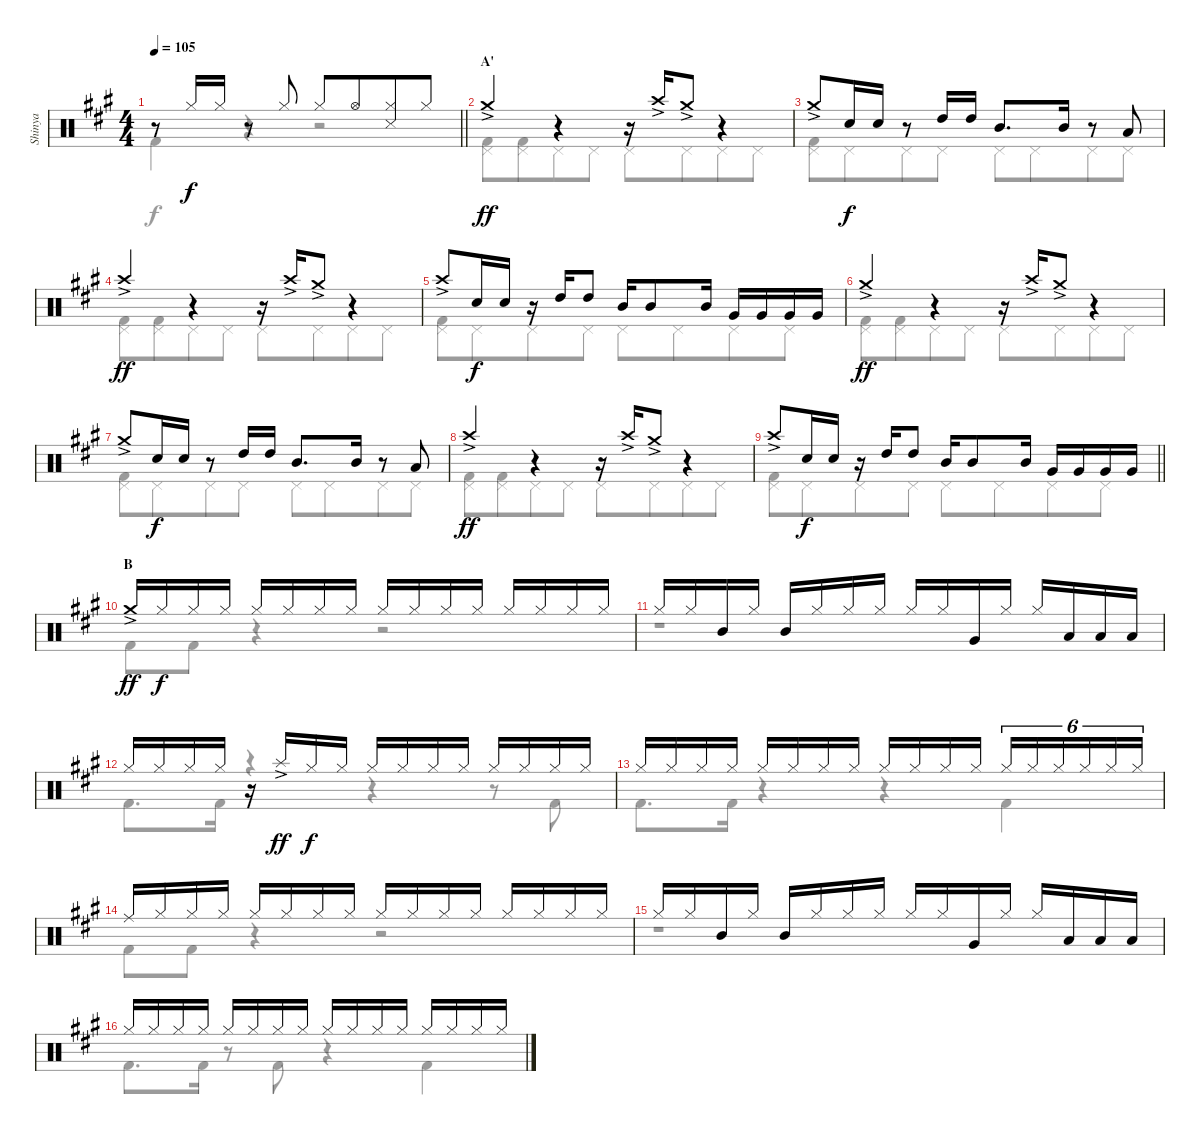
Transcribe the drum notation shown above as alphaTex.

\track ("Shinya" "Shinya") {instrument percussion}
\staff {score}
\articulation defaults
\voice
\ts (4 4)
\tempo 105
\clef neutral
\barLineRight lightlight
\ks f#minor
r.8{dy f} "Hi-Hat (closed)".16 "Hi-Hat (closed)".16 r.8 "Hi-Hat (closed)".8 "Hi-Hat (closed)".8 "Hi-Hat (open)".8{beam merge} ("Hi-Hat (closed)" "Snare (side stick) 3").8 "Hi-Hat (closed)".8 |
\section ("" "A'")
"Crash medium (hit)"{ac}.4{dy ff} r.4 r.16 "Crash high (hit)"{ac}.16 "Crash medium (hit)"{ac}.8 r.4 |
"Crash medium (hit)"{ac}.8 "Snare (hit) 2".16{dy f} "Snare (hit) 2".16 r.8 "High Tom (hit)".16 "High Tom (hit)".16 "Mid Tom (hit)".8{d} "Mid Tom (hit)".16 r.8 "Low Floor Tom (hit)".8 |
"Crash high (hit)"{ac}.4{dy ff} r.4 r.16 "Crash high (hit)"{ac}.16 "Crash medium (hit)"{ac}.8 r.4 |
"Crash high (hit)"{ac}.8 "Snare (hit) 2".16{dy f} "Snare (hit) 2".16 r.16 "High Tom (hit)".16 "High Tom (hit)".8 "Mid Tom (hit)".16 "Mid Tom (hit)".8 "Mid Tom (hit)".16 "Very Low Tom (hit)".16 "Very Low Tom (hit)".16 "Very Low Tom (hit)".16 "Very Low Tom (hit)".16 |
"Crash medium (hit)"{ac}.4{dy ff} r.4 r.16 "Crash high (hit)"{ac}.16 "Crash medium (hit)"{ac}.8 r.4 |
"Crash medium (hit)"{ac}.8 "Snare (hit) 2".16{dy f} "Snare (hit) 2".16 r.8 "High Tom (hit)".16 "High Tom (hit)".16 "Mid Tom (hit)".8{d} "Mid Tom (hit)".16 r.8 "Low Floor Tom (hit)".8 |
"Crash high (hit)"{ac}.4{dy ff} r.4 r.16 "Crash high (hit)"{ac}.16 "Crash medium (hit)"{ac}.8 r.4 |
\barLineRight lightlight "Crash high (hit)"{ac}.8 "Snare (hit) 2".16{dy f} "Snare (hit) 2".16
r.16 "High Tom (hit)".16 "High Tom (hit)".8 "Mid Tom (hit)".16 "Mid Tom (hit)".8 "Mid Tom (hit)".16 "Very Low Tom (hit)".16 "Very Low Tom (hit)".16 "Very Low Tom (hit)".16 "Very Low Tom (hit)".16 |
\section ("" "B")
"Crash medium (hit)"{ac}.16{dy ff} "Hi-Hat (closed)".16{dy f} "Hi-Hat (closed)".16 "Hi-Hat (closed)".16 "Hi-Hat (closed)".16 "Hi-Hat (closed)".16 "Hi-Hat (closed)".16 "Hi-Hat (closed)".16 "Hi-Hat (closed)".16 "Hi-Hat (closed)".16 "Hi-Hat (closed)".16 "Hi-Hat (closed)".16 "Hi-Hat (closed)".16 "Hi-Hat (closed)".16 "Hi-Hat (closed)".16 "Hi-Hat (closed)".16 |
"Hi-Hat (closed)".16 "Hi-Hat (closed)".16 "Mid Tom (hit)".16 "Hi-Hat (closed)".16 "Mid Tom (hit)".16 "Hi-Hat (closed)".16 "Hi-Hat (closed)".16 "Hi-Hat (closed)".16 "Hi-Hat (closed)".16 "Hi-Hat (closed)".16 "Very Low Tom (hit)".16 "Hi-Hat (closed)".16 "Hi-Hat (closed)".16 "Low Floor Tom (hit)".16 "Low Floor Tom (hit)".16 "Low Floor Tom (hit)".16 |
"Hi-Hat (closed)".16 "Hi-Hat (closed)".16 "Hi-Hat (closed)".16 "Hi-Hat (closed)".16 r.16 "Splash (hit)"{ac}.16{dy ff} "Hi-Hat (closed)".16{dy f} "Hi-Hat (closed)".16 "Hi-Hat (closed)".16 "Hi-Hat (closed)".16 "Hi-Hat (closed)".16 "Hi-Hat (closed)".16 "Hi-Hat (closed)".16 "Hi-Hat (closed)".16 "Hi-Hat (closed)".16 "Hi-Hat (closed)".16 |
"Hi-Hat (closed)".16 "Hi-Hat (closed)".16 "Hi-Hat (closed)".16 "Hi-Hat (closed)".16 "Hi-Hat (closed)".16 "Hi-Hat (closed)".16 "Hi-Hat (closed)".16 "Hi-Hat (closed)".16 "Hi-Hat (closed)".16 "Hi-Hat (closed)".16 "Hi-Hat (closed)".16 "Hi-Hat (closed)".16 "Hi-Hat (closed)".16{tu (6 4)} "Hi-Hat (closed)".16{tu (6 4)} "Hi-Hat (closed)".16{tu (6 4)} "Hi-Hat (closed)".16{tu (6 4)} "Hi-Hat (closed)".16{tu (6 4)} "Hi-Hat (closed)".16{tu (6 4)} |
"Ride (middle)".16 "Hi-Hat (closed)".16 "Hi-Hat (closed)".16 "Hi-Hat (closed)".16 "Hi-Hat (closed)".16 "Hi-Hat (closed)".16 "Hi-Hat (closed)".16 "Hi-Hat (closed)".16 "Hi-Hat (closed)".16 "Hi-Hat (closed)".16 "Hi-Hat (closed)".16 "Hi-Hat (closed)".16 "Hi-Hat (closed)".16 "Hi-Hat (closed)".16 "Hi-Hat (closed)".16 "Hi-Hat (closed)".16 |
"Hi-Hat (closed)".16 "Hi-Hat (closed)".16 "Mid Tom (hit)".16 "Hi-Hat (closed)".16 "Mid Tom (hit)".16 "Hi-Hat (closed)".16 "Hi-Hat (closed)".16 "Hi-Hat (closed)".16 "Hi-Hat (closed)".16 "Hi-Hat (closed)".16 "Very Low Tom (hit)".16 "Hi-Hat (closed)".16 "Hi-Hat (closed)".16 "Low Floor Tom (hit)".16 "Low Floor Tom (hit)".16 "Low Floor Tom (hit)".16 |
"Hi-Hat (closed)".16 "Hi-Hat (closed)".16 "Hi-Hat (closed)".16 "Hi-Hat (closed)".16 "Hi-Hat (closed)".16 "Hi-Hat (closed)".16 "Hi-Hat (closed)".16 "Hi-Hat (closed)".16 "Hi-Hat (closed)".16 "Hi-Hat (closed)".16 "Hi-Hat (closed)".16 "Hi-Hat (closed)".16 "Hi-Hat (closed)".16 "Hi-Hat (closed)".16 "Hi-Hat (closed)".16 "Hi-Hat (closed)".16
\voice
\clef neutral
\ottava regular
\simile none
\barLineRight lightlight
\ks f#minor "Kick (hit) 2".4{dy f}
r.4 r.2 |
("Pedal Hi-Hat (hit)" "Kick (hit) 2").8 ("Pedal Hi-Hat (hit)" "Kick (hit) 2").8{beam merge} "Pedal Hi-Hat (hit)".8 "Pedal Hi-Hat (hit)".8 "Pedal Hi-Hat (hit)".8 "Pedal Hi-Hat (hit)".8{beam merge} "Pedal Hi-Hat (hit)".8 "Pedal Hi-Hat (hit)".8 |
("Pedal Hi-Hat (hit)" "Kick (hit) 2").8 "Pedal Hi-Hat (hit)".8{beam merge} "Pedal Hi-Hat (hit)".8 "Pedal Hi-Hat (hit)".8 "Pedal Hi-Hat (hit)".8 "Pedal Hi-Hat (hit)".8{beam merge} "Pedal Hi-Hat (hit)".8 "Pedal Hi-Hat (hit)".8 |
("Pedal Hi-Hat (hit)" "Kick (hit) 2").8 ("Pedal Hi-Hat (hit)" "Kick (hit) 2").8{beam merge} "Pedal Hi-Hat (hit)".8 "Pedal Hi-Hat (hit)".8 "Pedal Hi-Hat (hit)".8 "Pedal Hi-Hat (hit)".8{beam merge} "Pedal Hi-Hat (hit)".8 "Pedal Hi-Hat (hit)".8 |
("Pedal Hi-Hat (hit)" "Kick (hit) 2").8 "Pedal Hi-Hat (hit)".8{beam merge} "Pedal Hi-Hat (hit)".8 "Pedal Hi-Hat (hit)".8 "Pedal Hi-Hat (hit)".8 "Pedal Hi-Hat (hit)".8{beam merge} "Pedal Hi-Hat (hit)".8 "Pedal Hi-Hat (hit)".8 |
("Pedal Hi-Hat (hit)" "Kick (hit) 2").8 ("Pedal Hi-Hat (hit)" "Kick (hit) 2").8{beam merge} "Pedal Hi-Hat (hit)".8 "Pedal Hi-Hat (hit)".8 "Pedal Hi-Hat (hit)".8 "Pedal Hi-Hat (hit)".8{beam merge} "Pedal Hi-Hat (hit)".8 "Pedal Hi-Hat (hit)".8 |
("Pedal Hi-Hat (hit)" "Kick (hit) 2").8 "Pedal Hi-Hat (hit)".8{beam merge} "Pedal Hi-Hat (hit)".8 "Pedal Hi-Hat (hit)".8 "Pedal Hi-Hat (hit)".8 "Pedal Hi-Hat (hit)".8{beam merge} "Pedal Hi-Hat (hit)".8 "Pedal Hi-Hat (hit)".8 |
("Pedal Hi-Hat (hit)" "Kick (hit) 2").8 ("Pedal Hi-Hat (hit)" "Kick (hit) 2").8{beam merge} "Pedal Hi-Hat (hit)".8 "Pedal Hi-Hat (hit)".8 "Pedal Hi-Hat (hit)".8 "Pedal Hi-Hat (hit)".8{beam merge} "Pedal Hi-Hat (hit)".8 "Pedal Hi-Hat (hit)".8 |
\barLineRight lightlight
("Pedal Hi-Hat (hit)" "Kick (hit) 2").8 "Pedal Hi-Hat (hit)".8{beam merge} "Pedal Hi-Hat (hit)".8 "Pedal Hi-Hat (hit)".8 "Pedal Hi-Hat (hit)".8 "Pedal Hi-Hat (hit)".8{beam merge} "Pedal Hi-Hat (hit)".8 "Pedal Hi-Hat (hit)".8 |
"Kick (hit) 2".8 "Kick (hit) 2".8 r.4 r.2 |
r.1 |
"Kick (hit) 2".8{d} "Kick (hit) 2".16 r.4 r.4 r.8 "Kick (hit) 2".8 |
"Kick (hit) 2".8{d} "Kick (hit) 2".16 r.4 r.4 "Kick (hit) 2".4 |
"Kick (hit) 2".8 "Kick (hit) 2".8 r.4 r.2 |
r.1 |
"Kick (hit) 2".8{d} "Kick (hit) 2".16 r.8 "Kick (hit) 2".8 r.4 "Kick (hit) 2".4
